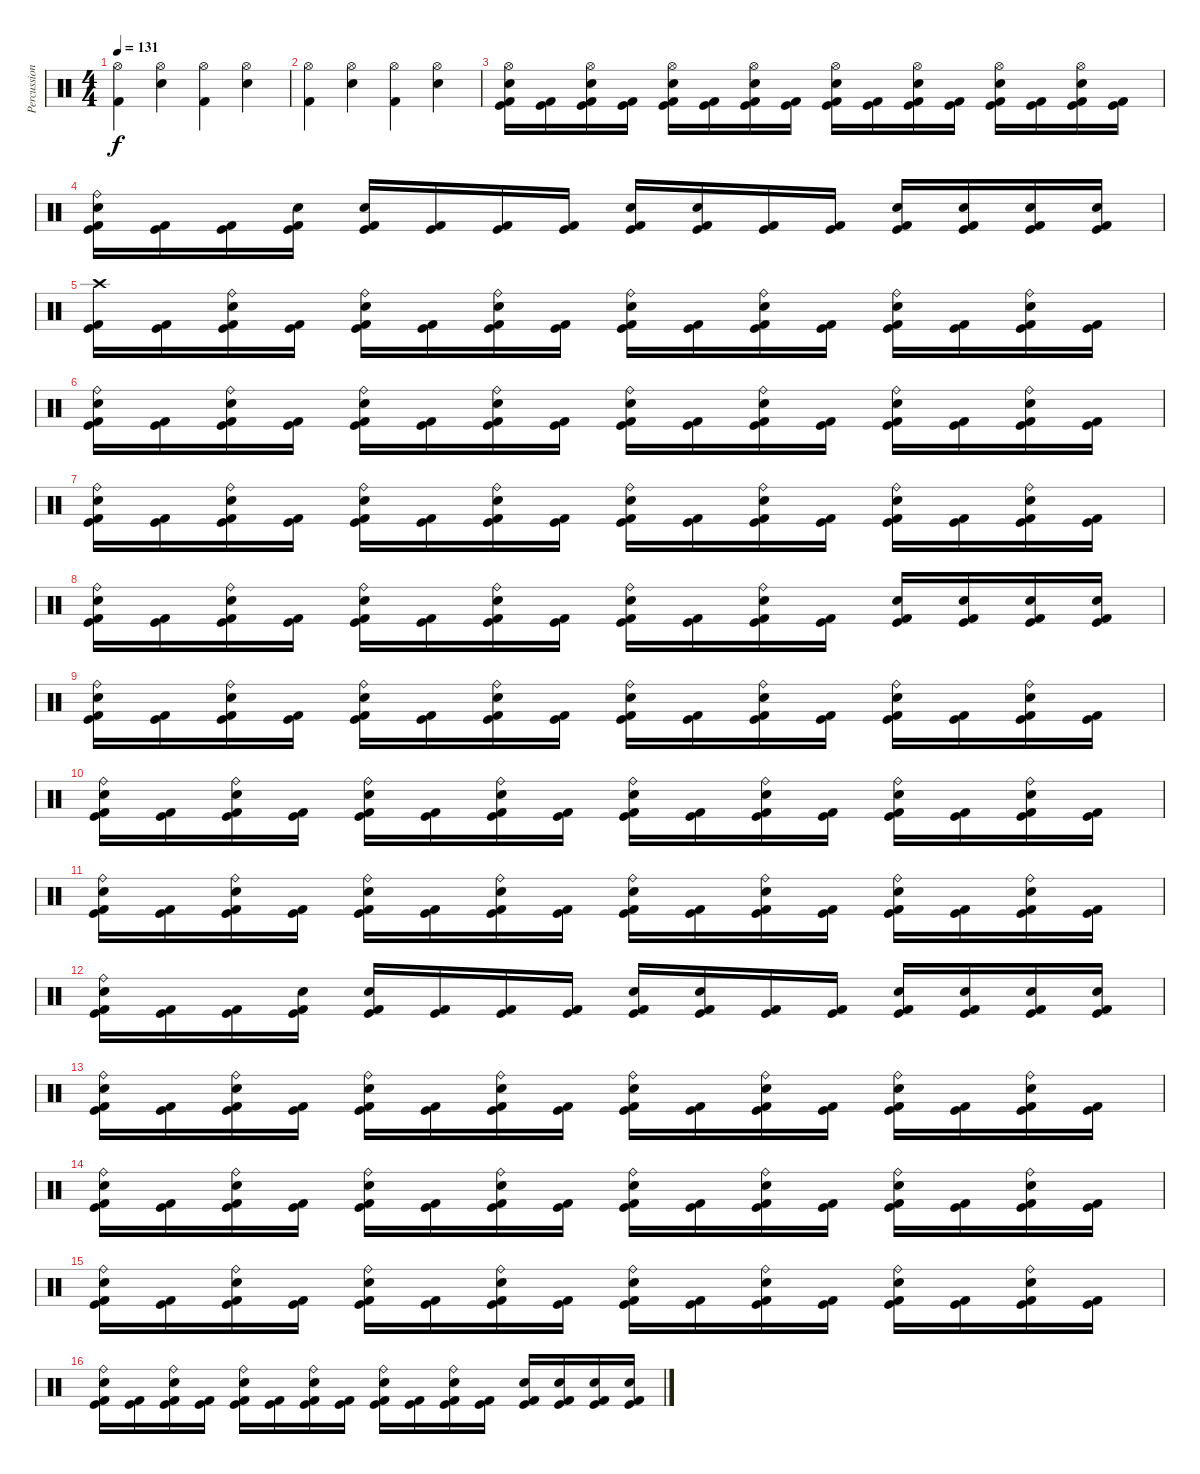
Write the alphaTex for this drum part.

\track ("Percussion" "Percussion") {instrument percussion}
\staff {score}
\articulation defaults
\ts (4 4)
\tempo 131
\clef neutral
\ks c
("Hi-Hat (open)" "Kick (hit) 2").4{dy f} ("Hi-Hat (open)" "Snare (hit) 2").4 ("Hi-Hat (open)" "Kick (hit) 2").4 ("Hi-Hat (open)" "Snare (hit) 2").4 |
("Hi-Hat (open)" "Kick (hit) 2").4 ("Hi-Hat (open)" "Snare (hit) 2").4 ("Hi-Hat (open)" "Kick (hit) 2").4 ("Hi-Hat (open)" "Snare (hit) 2").4 |
("Snare (hit) 2" "Hi-Hat (open)" "Kick (hit)" "Kick (hit) 2").16 ("Kick (hit)" "Kick (hit) 2").16 ("Snare (hit) 2" "Hi-Hat (open)" "Kick (hit)" "Kick (hit) 2").16 ("Kick (hit)" "Kick (hit) 2").16 ("Snare (hit) 2" "Hi-Hat (open)" "Kick (hit)" "Kick (hit) 2").16 ("Kick (hit)" "Kick (hit) 2").16 ("Snare (hit) 2" "Hi-Hat (open)" "Kick (hit)" "Kick (hit) 2").16 ("Kick (hit)" "Kick (hit) 2").16 ("Snare (hit) 2" "Hi-Hat (open)" "Kick (hit)" "Kick (hit) 2").16 ("Kick (hit)" "Kick (hit) 2").16 ("Snare (hit) 2" "Hi-Hat (open)" "Kick (hit)" "Kick (hit) 2").16 ("Kick (hit)" "Kick (hit) 2").16 ("Snare (hit) 2" "Hi-Hat (open)" "Kick (hit)" "Kick (hit) 2").16 ("Kick (hit)" "Kick (hit) 2").16 ("Snare (hit) 2" "Hi-Hat (open)" "Kick (hit)" "Kick (hit) 2").16 ("Kick (hit)" "Kick (hit) 2").16 |
("Snare (hit) 2" "Ride (bell)" "Kick (hit)" "Kick (hit) 2").16 ("Kick (hit)" "Kick (hit) 2").16 ("Kick (hit)" "Kick (hit) 2").16 ("Snare (hit) 2" "Kick (hit)" "Kick (hit) 2").16 ("Snare (hit) 2" "Kick (hit)" "Kick (hit) 2").16 ("Kick (hit)" "Kick (hit) 2").16 ("Kick (hit)" "Kick (hit) 2").16 ("Kick (hit)" "Kick (hit) 2").16 ("Snare (hit) 2" "Kick (hit)" "Kick (hit) 2").16 ("Snare (hit) 2" "Kick (hit)" "Kick (hit) 2").16 ("Kick (hit)" "Kick (hit) 2").16 ("Kick (hit)" "Kick (hit) 2").16 ("Snare (hit) 2" "Kick (hit)" "Kick (hit) 2").16 ("Snare (hit) 2" "Kick (hit)" "Kick (hit) 2").16 ("Snare (hit) 2" "Kick (hit)" "Kick (hit) 2").16 ("Snare (hit) 2" "Kick (hit)" "Kick (hit) 2").16 |
("Crash high (hit)" "Kick (hit)" "Kick (hit) 2").16 ("Kick (hit)" "Kick (hit) 2").16 ("Snare (hit) 2" "Ride (bell)" "Kick (hit)" "Kick (hit) 2").16 ("Kick (hit)" "Kick (hit) 2").16 ("Snare (hit) 2" "Ride (bell)" "Kick (hit)" "Kick (hit) 2").16 ("Kick (hit)" "Kick (hit) 2").16 ("Snare (hit) 2" "Ride (bell)" "Kick (hit)" "Kick (hit) 2").16 ("Kick (hit)" "Kick (hit) 2").16 ("Snare (hit) 2" "Ride (bell)" "Kick (hit)" "Kick (hit) 2").16 ("Kick (hit)" "Kick (hit) 2").16 ("Snare (hit) 2" "Ride (bell)" "Kick (hit)" "Kick (hit) 2").16 ("Kick (hit)" "Kick (hit) 2").16 ("Snare (hit) 2" "Ride (bell)" "Kick (hit)" "Kick (hit) 2").16 ("Kick (hit)" "Kick (hit) 2").16 ("Snare (hit) 2" "Ride (bell)" "Kick (hit)" "Kick (hit) 2").16 ("Kick (hit)" "Kick (hit) 2").16 |
("Snare (hit) 2" "Ride (bell)" "Kick (hit)" "Kick (hit) 2").16 ("Kick (hit)" "Kick (hit) 2").16 ("Snare (hit) 2" "Ride (bell)" "Kick (hit)" "Kick (hit) 2").16 ("Kick (hit)" "Kick (hit) 2").16 ("Snare (hit) 2" "Ride (bell)" "Kick (hit)" "Kick (hit) 2").16 ("Kick (hit)" "Kick (hit) 2").16 ("Snare (hit) 2" "Ride (bell)" "Kick (hit)" "Kick (hit) 2").16 ("Kick (hit)" "Kick (hit) 2").16 ("Snare (hit) 2" "Ride (bell)" "Kick (hit)" "Kick (hit) 2").16 ("Kick (hit)" "Kick (hit) 2").16 ("Snare (hit) 2" "Ride (bell)" "Kick (hit)" "Kick (hit) 2").16 ("Kick (hit)" "Kick (hit) 2").16 ("Snare (hit) 2" "Ride (bell)" "Kick (hit)" "Kick (hit) 2").16 ("Kick (hit)" "Kick (hit) 2").16 ("Snare (hit) 2" "Ride (bell)" "Kick (hit)" "Kick (hit) 2").16 ("Kick (hit)" "Kick (hit) 2").16 |
("Snare (hit) 2" "Ride (bell)" "Kick (hit)" "Kick (hit) 2").16 ("Kick (hit)" "Kick (hit) 2").16 ("Snare (hit) 2" "Ride (bell)" "Kick (hit)" "Kick (hit) 2").16 ("Kick (hit)" "Kick (hit) 2").16 ("Snare (hit) 2" "Ride (bell)" "Kick (hit)" "Kick (hit) 2").16 ("Kick (hit)" "Kick (hit) 2").16 ("Snare (hit) 2" "Ride (bell)" "Kick (hit)" "Kick (hit) 2").16 ("Kick (hit)" "Kick (hit) 2").16 ("Snare (hit) 2" "Ride (bell)" "Kick (hit)" "Kick (hit) 2").16 ("Kick (hit)" "Kick (hit) 2").16 ("Snare (hit) 2" "Ride (bell)" "Kick (hit)" "Kick (hit) 2").16 ("Kick (hit)" "Kick (hit) 2").16 ("Snare (hit) 2" "Ride (bell)" "Kick (hit)" "Kick (hit) 2").16 ("Kick (hit)" "Kick (hit) 2").16 ("Snare (hit) 2" "Ride (bell)" "Kick (hit)" "Kick (hit) 2").16 ("Kick (hit)" "Kick (hit) 2").16 |
("Snare (hit) 2" "Ride (bell)" "Kick (hit)" "Kick (hit) 2").16 ("Kick (hit)" "Kick (hit) 2").16 ("Snare (hit) 2" "Ride (bell)" "Kick (hit)" "Kick (hit) 2").16 ("Kick (hit)" "Kick (hit) 2").16 ("Snare (hit) 2" "Ride (bell)" "Kick (hit)" "Kick (hit) 2").16 ("Kick (hit)" "Kick (hit) 2").16 ("Snare (hit) 2" "Ride (bell)" "Kick (hit)" "Kick (hit) 2").16 ("Kick (hit)" "Kick (hit) 2").16 ("Snare (hit) 2" "Ride (bell)" "Kick (hit)" "Kick (hit) 2").16 ("Kick (hit)" "Kick (hit) 2").16 ("Snare (hit) 2" "Ride (bell)" "Kick (hit)" "Kick (hit) 2").16 ("Kick (hit)" "Kick (hit) 2").16 ("Snare (hit) 2" "Kick (hit)" "Kick (hit) 2").16 ("Snare (hit) 2" "Kick (hit)" "Kick (hit) 2").16 ("Snare (hit) 2" "Kick (hit)" "Kick (hit) 2").16 ("Snare (hit) 2" "Kick (hit)" "Kick (hit) 2").16 |
("Snare (hit) 2" "Ride (bell)" "Kick (hit)" "Kick (hit) 2").16 ("Kick (hit)" "Kick (hit) 2").16 ("Snare (hit) 2" "Ride (bell)" "Kick (hit)" "Kick (hit) 2").16 ("Kick (hit)" "Kick (hit) 2").16 ("Snare (hit) 2" "Ride (bell)" "Kick (hit)" "Kick (hit) 2").16 ("Kick (hit)" "Kick (hit) 2").16 ("Snare (hit) 2" "Ride (bell)" "Kick (hit)" "Kick (hit) 2").16 ("Kick (hit)" "Kick (hit) 2").16 ("Snare (hit) 2" "Ride (bell)" "Kick (hit)" "Kick (hit) 2").16 ("Kick (hit)" "Kick (hit) 2").16 ("Snare (hit) 2" "Ride (bell)" "Kick (hit)" "Kick (hit) 2").16 ("Kick (hit)" "Kick (hit) 2").16 ("Snare (hit) 2" "Ride (bell)" "Kick (hit)" "Kick (hit) 2").16 ("Kick (hit)" "Kick (hit) 2").16 ("Snare (hit) 2" "Ride (bell)" "Kick (hit)" "Kick (hit) 2").16 ("Kick (hit)" "Kick (hit) 2").16 |
("Snare (hit) 2" "Ride (bell)" "Kick (hit)" "Kick (hit) 2").16 ("Kick (hit)" "Kick (hit) 2").16 ("Snare (hit) 2" "Ride (bell)" "Kick (hit)" "Kick (hit) 2").16 ("Kick (hit)" "Kick (hit) 2").16 ("Snare (hit) 2" "Ride (bell)" "Kick (hit)" "Kick (hit) 2").16 ("Kick (hit)" "Kick (hit) 2").16 ("Snare (hit) 2" "Ride (bell)" "Kick (hit)" "Kick (hit) 2").16 ("Kick (hit)" "Kick (hit) 2").16 ("Snare (hit) 2" "Ride (bell)" "Kick (hit)" "Kick (hit) 2").16 ("Kick (hit)" "Kick (hit) 2").16 ("Snare (hit) 2" "Ride (bell)" "Kick (hit)" "Kick (hit) 2").16 ("Kick (hit)" "Kick (hit) 2").16 ("Snare (hit) 2" "Ride (bell)" "Kick (hit)" "Kick (hit) 2").16 ("Kick (hit)" "Kick (hit) 2").16 ("Snare (hit) 2" "Ride (bell)" "Kick (hit)" "Kick (hit) 2").16 ("Kick (hit)" "Kick (hit) 2").16 |
("Snare (hit) 2" "Ride (bell)" "Kick (hit)" "Kick (hit) 2").16 ("Kick (hit)" "Kick (hit) 2").16 ("Snare (hit) 2" "Ride (bell)" "Kick (hit)" "Kick (hit) 2").16 ("Kick (hit)" "Kick (hit) 2").16 ("Snare (hit) 2" "Ride (bell)" "Kick (hit)" "Kick (hit) 2").16 ("Kick (hit)" "Kick (hit) 2").16 ("Snare (hit) 2" "Ride (bell)" "Kick (hit)" "Kick (hit) 2").16 ("Kick (hit)" "Kick (hit) 2").16 ("Snare (hit) 2" "Ride (bell)" "Kick (hit)" "Kick (hit) 2").16 ("Kick (hit)" "Kick (hit) 2").16 ("Snare (hit) 2" "Ride (bell)" "Kick (hit)" "Kick (hit) 2").16 ("Kick (hit)" "Kick (hit) 2").16 ("Snare (hit) 2" "Ride (bell)" "Kick (hit)" "Kick (hit) 2").16 ("Kick (hit)" "Kick (hit) 2").16 ("Snare (hit) 2" "Ride (bell)" "Kick (hit)" "Kick (hit) 2").16 ("Kick (hit)" "Kick (hit) 2").16 |
("Snare (hit) 2" "Ride (bell)" "Kick (hit)" "Kick (hit) 2").16 ("Kick (hit)" "Kick (hit) 2").16 ("Kick (hit)" "Kick (hit) 2").16 ("Snare (hit) 2" "Kick (hit)" "Kick (hit) 2").16 ("Snare (hit) 2" "Kick (hit)" "Kick (hit) 2").16 ("Kick (hit)" "Kick (hit) 2").16 ("Kick (hit)" "Kick (hit) 2").16 ("Kick (hit)" "Kick (hit) 2").16 ("Snare (hit) 2" "Kick (hit)" "Kick (hit) 2").16 ("Snare (hit) 2" "Kick (hit)" "Kick (hit) 2").16 ("Kick (hit)" "Kick (hit) 2").16 ("Kick (hit)" "Kick (hit) 2").16 ("Snare (hit) 2" "Kick (hit)" "Kick (hit) 2").16 ("Snare (hit) 2" "Kick (hit)" "Kick (hit) 2").16 ("Snare (hit) 2" "Kick (hit)" "Kick (hit) 2").16 ("Snare (hit) 2" "Kick (hit)" "Kick (hit) 2").16 |
("Snare (hit) 2" "Ride (bell)" "Kick (hit)" "Kick (hit) 2").16 ("Kick (hit)" "Kick (hit) 2").16 ("Snare (hit) 2" "Ride (bell)" "Kick (hit)" "Kick (hit) 2").16 ("Kick (hit)" "Kick (hit) 2").16 ("Snare (hit) 2" "Ride (bell)" "Kick (hit)" "Kick (hit) 2").16 ("Kick (hit)" "Kick (hit) 2").16 ("Snare (hit) 2" "Ride (bell)" "Kick (hit)" "Kick (hit) 2").16 ("Kick (hit)" "Kick (hit) 2").16 ("Snare (hit) 2" "Ride (bell)" "Kick (hit)" "Kick (hit) 2").16 ("Kick (hit)" "Kick (hit) 2").16 ("Snare (hit) 2" "Ride (bell)" "Kick (hit)" "Kick (hit) 2").16 ("Kick (hit)" "Kick (hit) 2").16 ("Snare (hit) 2" "Ride (bell)" "Kick (hit)" "Kick (hit) 2").16 ("Kick (hit)" "Kick (hit) 2").16 ("Snare (hit) 2" "Ride (bell)" "Kick (hit)" "Kick (hit) 2").16 ("Kick (hit)" "Kick (hit) 2").16 |
("Snare (hit) 2" "Ride (bell)" "Kick (hit)" "Kick (hit) 2").16 ("Kick (hit)" "Kick (hit) 2").16 ("Snare (hit) 2" "Ride (bell)" "Kick (hit)" "Kick (hit) 2").16 ("Kick (hit)" "Kick (hit) 2").16 ("Snare (hit) 2" "Ride (bell)" "Kick (hit)" "Kick (hit) 2").16 ("Kick (hit)" "Kick (hit) 2").16 ("Snare (hit) 2" "Ride (bell)" "Kick (hit)" "Kick (hit) 2").16 ("Kick (hit)" "Kick (hit) 2").16 ("Snare (hit) 2" "Ride (bell)" "Kick (hit)" "Kick (hit) 2").16 ("Kick (hit)" "Kick (hit) 2").16 ("Snare (hit) 2" "Ride (bell)" "Kick (hit)" "Kick (hit) 2").16 ("Kick (hit)" "Kick (hit) 2").16 ("Snare (hit) 2" "Ride (bell)" "Kick (hit)" "Kick (hit) 2").16 ("Kick (hit)" "Kick (hit) 2").16 ("Snare (hit) 2" "Ride (bell)" "Kick (hit)" "Kick (hit) 2").16 ("Kick (hit)" "Kick (hit) 2").16 |
("Snare (hit) 2" "Ride (bell)" "Kick (hit)" "Kick (hit) 2").16 ("Kick (hit)" "Kick (hit) 2").16 ("Snare (hit) 2" "Ride (bell)" "Kick (hit)" "Kick (hit) 2").16 ("Kick (hit)" "Kick (hit) 2").16 ("Snare (hit) 2" "Ride (bell)" "Kick (hit)" "Kick (hit) 2").16 ("Kick (hit)" "Kick (hit) 2").16 ("Snare (hit) 2" "Ride (bell)" "Kick (hit)" "Kick (hit) 2").16 ("Kick (hit)" "Kick (hit) 2").16 ("Snare (hit) 2" "Ride (bell)" "Kick (hit)" "Kick (hit) 2").16 ("Kick (hit)" "Kick (hit) 2").16 ("Snare (hit) 2" "Ride (bell)" "Kick (hit)" "Kick (hit) 2").16 ("Kick (hit)" "Kick (hit) 2").16 ("Snare (hit) 2" "Ride (bell)" "Kick (hit)" "Kick (hit) 2").16 ("Kick (hit)" "Kick (hit) 2").16 ("Snare (hit) 2" "Ride (bell)" "Kick (hit)" "Kick (hit) 2").16 ("Kick (hit)" "Kick (hit) 2").16 |
("Snare (hit) 2" "Ride (bell)" "Kick (hit)" "Kick (hit) 2").16 ("Kick (hit)" "Kick (hit) 2").16 ("Snare (hit) 2" "Ride (bell)" "Kick (hit)" "Kick (hit) 2").16 ("Kick (hit)" "Kick (hit) 2").16 ("Snare (hit) 2" "Ride (bell)" "Kick (hit)" "Kick (hit) 2").16 ("Kick (hit)" "Kick (hit) 2").16 ("Snare (hit) 2" "Ride (bell)" "Kick (hit)" "Kick (hit) 2").16 ("Kick (hit)" "Kick (hit) 2").16 ("Snare (hit) 2" "Ride (bell)" "Kick (hit)" "Kick (hit) 2").16 ("Kick (hit)" "Kick (hit) 2").16 ("Snare (hit) 2" "Ride (bell)" "Kick (hit)" "Kick (hit) 2").16 ("Kick (hit)" "Kick (hit) 2").16 ("Snare (hit) 2" "Kick (hit)" "Kick (hit) 2").16 ("Snare (hit) 2" "Kick (hit)" "Kick (hit) 2").16 ("Snare (hit) 2" "Kick (hit)" "Kick (hit) 2").16 ("Snare (hit) 2" "Kick (hit)" "Kick (hit) 2").16
